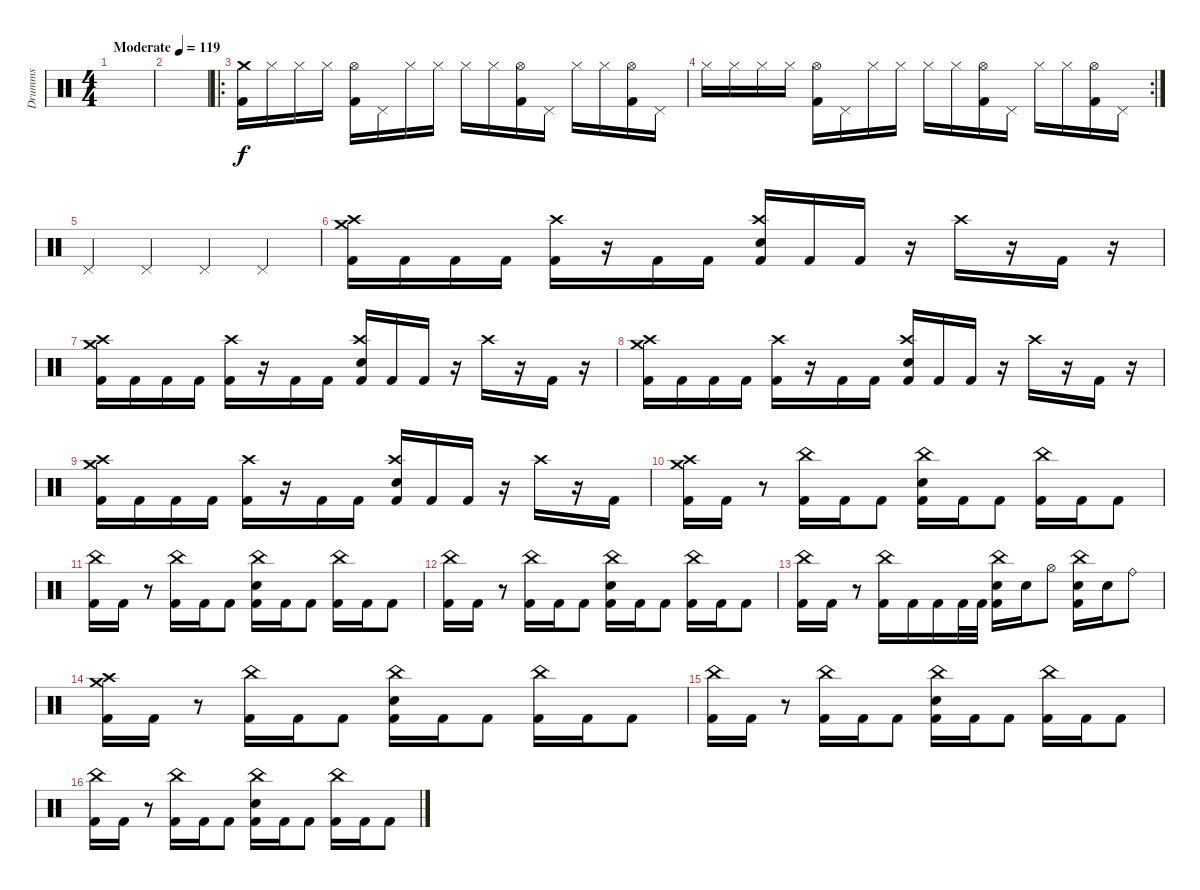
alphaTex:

\track ("Drumms" "Drumms") {instrument percussion}
\staff {score}
\articulation defaults
\ts (4 4)
\tempo (119 "Moderate")
\clef neutral
\ks c
|
|
\ro
("Crash medium (hit)" "Kick (hit) 2").16 "Hi-Hat (closed)".16 "Hi-Hat (closed)".16 "Hi-Hat (closed)".16 ("Hi-Hat (open)" "Kick (hit) 2").16 "Pedal Hi-Hat (hit)".16 "Hi-Hat (closed)".16 "Hi-Hat (closed)".16 "Hi-Hat (closed)".16 "Hi-Hat (closed)".16 ("Hi-Hat (open)" "Kick (hit) 2").16 "Pedal Hi-Hat (hit)".16 "Hi-Hat (closed)".16 "Hi-Hat (closed)".16 ("Hi-Hat (open)" "Kick (hit) 2").16 "Pedal Hi-Hat (hit)".16 |
\rc 2 "Hi-Hat (closed)".16 "Hi-Hat (closed)".16 "Hi-Hat (closed)".16 "Hi-Hat (closed)".16
("Hi-Hat (open)" "Kick (hit) 2").16 "Pedal Hi-Hat (hit)".16 "Hi-Hat (closed)".16 "Hi-Hat (closed)".16 "Hi-Hat (closed)".16 "Hi-Hat (closed)".16 ("Hi-Hat (open)" "Kick (hit) 2").16 "Pedal Hi-Hat (hit)".16 "Hi-Hat (closed)".16 "Hi-Hat (closed)".16 ("Hi-Hat (open)" "Kick (hit) 2").16 "Pedal Hi-Hat (hit)".16 |
"Pedal Hi-Hat (hit)".4 "Pedal Hi-Hat (hit)".4 "Pedal Hi-Hat (hit)".4 "Pedal Hi-Hat (hit)".4 |
("Crash medium (hit)" "Crash high (hit)" "Kick (hit) 2").16 "Kick (hit) 2".16 "Kick (hit) 2".16 "Kick (hit) 2".16 ("Crash high (hit)" "Kick (hit) 2").16 r.16 "Kick (hit) 2".16 "Kick (hit) 2".16 ("Crash high (hit)" "Electric Snare (hit)" "Kick (hit) 2").16 "Kick (hit) 2".16 "Kick (hit) 2".16 r.16 "Crash high (hit)".16 r.16 "Kick (hit) 2".16 r.16 |
("Crash medium (hit)" "Crash high (hit)" "Kick (hit) 2").16 "Kick (hit) 2".16 "Kick (hit) 2".16 "Kick (hit) 2".16 ("Crash high (hit)" "Kick (hit) 2").16 r.16 "Kick (hit) 2".16 "Kick (hit) 2".16 ("Crash high (hit)" "Electric Snare (hit)" "Kick (hit) 2").16 "Kick (hit) 2".16 "Kick (hit) 2".16 r.16 "Crash high (hit)".16 r.16 "Kick (hit) 2".16 r.16 |
("Crash medium (hit)" "Crash high (hit)" "Kick (hit) 2").16 "Kick (hit) 2".16 "Kick (hit) 2".16 "Kick (hit) 2".16 ("Crash high (hit)" "Kick (hit) 2").16 r.16 "Kick (hit) 2".16 "Kick (hit) 2".16 ("Crash high (hit)" "Electric Snare (hit)" "Kick (hit) 2").16 "Kick (hit) 2".16 "Kick (hit) 2".16 r.16 "Crash high (hit)".16 r.16 "Kick (hit) 2".16 r.16 |
("Crash medium (hit)" "Crash high (hit)" "Kick (hit) 2").16 "Kick (hit) 2".16 "Kick (hit) 2".16 "Kick (hit) 2".16 ("Crash high (hit)" "Kick (hit) 2").16 r.16 "Kick (hit) 2".16 "Kick (hit) 2".16 ("Crash high (hit)" "Electric Snare (hit)" "Kick (hit) 2").16 "Kick (hit) 2".16 "Kick (hit) 2".16 r.16 "Crash high (hit)".16 r.16 "Kick (hit) 2".16 |
("Crash high (hit)" "Crash medium (hit)" "Kick (hit) 2").16 "Kick (hit) 2".16 r.8 ("China (hit)" "Kick (hit) 2").16 "Kick (hit) 2".16 "Kick (hit) 2".8 ("China (hit)" "Electric Snare (hit)" "Kick (hit) 2").16 "Kick (hit) 2".16 "Kick (hit) 2".8 ("China (hit)" "Kick (hit) 2").16 "Kick (hit) 2".16 "Kick (hit) 2".8 |
("China (hit)" "Kick (hit) 2").16 "Kick (hit) 2".16 r.8 ("China (hit)" "Kick (hit) 2").16 "Kick (hit) 2".16 "Kick (hit) 2".8 ("China (hit)" "Electric Snare (hit)" "Kick (hit) 2").16 "Kick (hit) 2".16 "Kick (hit) 2".8 ("China (hit)" "Kick (hit) 2").16 "Kick (hit) 2".16 "Kick (hit) 2".8 |
("China (hit)" "Kick (hit) 2").16 "Kick (hit) 2".16 r.8 ("China (hit)" "Kick (hit) 2").16 "Kick (hit) 2".16 "Kick (hit) 2".8 ("China (hit)" "Electric Snare (hit)" "Kick (hit) 2").16 "Kick (hit) 2".16 "Kick (hit) 2".8 ("China (hit)" "Kick (hit) 2").16 "Kick (hit) 2".16 "Kick (hit) 2".8 |
("China (hit)" "Kick (hit) 2").16 "Kick (hit) 2".16 r.8 ("China (hit)" "Kick (hit) 2").16 "Kick (hit) 2".16 "Kick (hit) 2".16 "Kick (hit) 2".32 "Kick (hit) 2".32 ("China (hit)" "Electric Snare (hit)" "Kick (hit) 2").16 "Electric Snare (hit)".16 "Hi-Hat (open)".8 ("China (hit)" "Electric Snare (hit)" "Kick (hit) 2").16 "Electric Snare (hit)".16 "Ride (bell)".8 |
("Crash high (hit)" "Crash medium (hit)" "Kick (hit) 2").16 "Kick (hit) 2".16 r.8 ("China (hit)" "Kick (hit) 2").16 "Kick (hit) 2".16 "Kick (hit) 2".8 ("China (hit)" "Electric Snare (hit)" "Kick (hit) 2").16 "Kick (hit) 2".16 "Kick (hit) 2".8 ("China (hit)" "Kick (hit) 2").16 "Kick (hit) 2".16 "Kick (hit) 2".8 |
("China (hit)" "Kick (hit) 2").16 "Kick (hit) 2".16 r.8 ("China (hit)" "Kick (hit) 2").16 "Kick (hit) 2".16 "Kick (hit) 2".8 ("China (hit)" "Electric Snare (hit)" "Kick (hit) 2").16 "Kick (hit) 2".16 "Kick (hit) 2".8 ("China (hit)" "Kick (hit) 2").16 "Kick (hit) 2".16 "Kick (hit) 2".8 |
("China (hit)" "Kick (hit) 2").16 "Kick (hit) 2".16 r.8 ("China (hit)" "Kick (hit) 2").16 "Kick (hit) 2".16 "Kick (hit) 2".8 ("China (hit)" "Electric Snare (hit)" "Kick (hit) 2").16 "Kick (hit) 2".16 "Kick (hit) 2".8 ("China (hit)" "Kick (hit) 2").16 "Kick (hit) 2".16 "Kick (hit) 2".8
